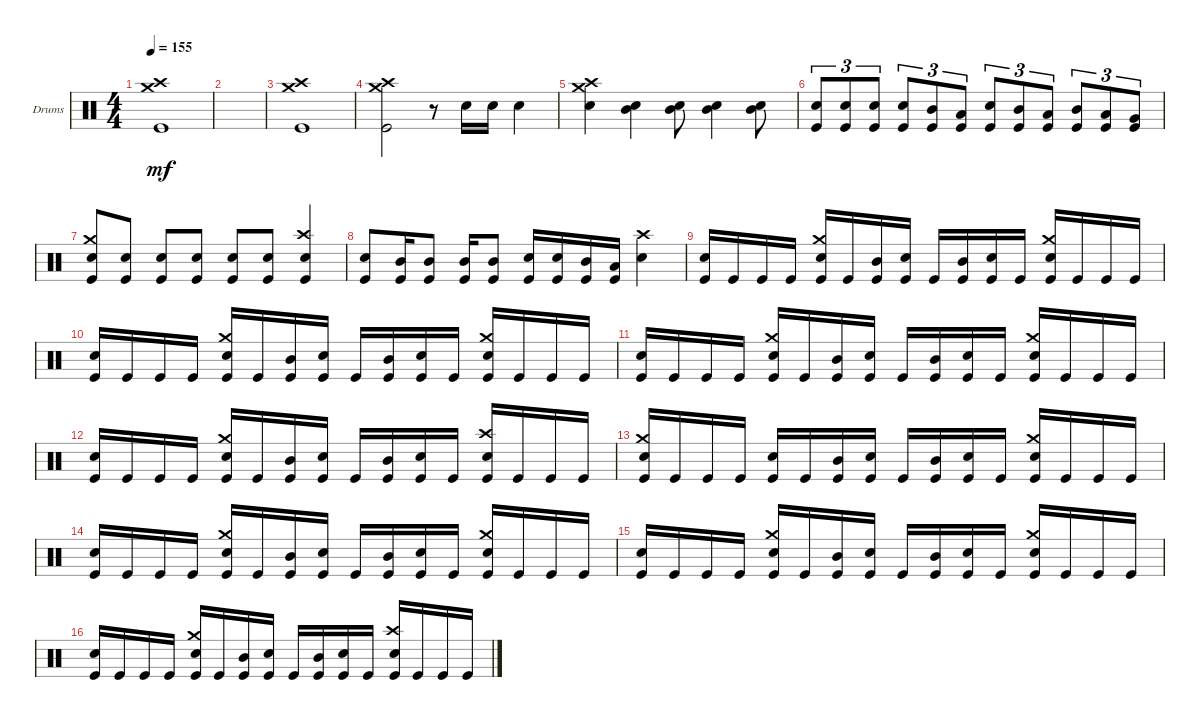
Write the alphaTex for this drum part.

\defaultSystemsLayout 4
\bracketExtendMode groupsimilarinstruments
\firstSystemTrackNameOrientation horizontal
\otherSystemsTrackNameOrientation horizontal
\track ("Drumkit" "Drums") {instrument percussion}
\staff {score}
\articulation defaults
\ts (4 4)
\tempo 155
\clef neutral
\scale
0.472222
\ks c
("Kick (hit)" "Crash medium (hit)" "Crash high (hit)").1{dy mf} |
\scale
0.263889 |
\scale
0.263889 ("Kick (hit)" "Crash medium (hit)" "Crash high (hit)").1 |
\scale
0.333333 ("Kick (hit)" "Crash medium (hit)" "Crash high (hit)").2 r.8 "Snare (hit) 2".16 "Snare (hit) 2".16 "Snare (hit) 2".4 |
\scale
0.333333 ("Crash medium (hit)" "Crash high (hit)" "Snare (hit) 2").4 ("Snare (hit) 2" "Mid Tom (hit)").4 ("Snare (hit) 2" "Mid Tom (hit)").8 ("Snare (hit) 2" "Mid Tom (hit)").4 ("Snare (hit) 2" "Mid Tom (hit)").8 |
\scale
0.333333 ("Kick (hit)" "Snare (hit) 2").8{tu (3 2)} ("Kick (hit)" "Snare (hit) 2").8{tu (3 2)} ("Kick (hit)" "Snare (hit) 2").8{tu (3 2)} ("Kick (hit)" "Snare (hit) 2").8{tu (3 2)} ("Kick (hit)" "Mid Tom (hit)").8{tu (3 2)} ("Kick (hit)" "Low Tom (hit)").8{tu (3 2)} ("Kick (hit)" "Snare (hit) 2").8{tu (3 2)} ("Kick (hit)" "Mid Tom (hit)").8{tu (3 2)} ("Kick (hit)" "Low Tom (hit)").8{tu (3 2)} ("Kick (hit)" "Mid Tom (hit)").8{tu (3 2)} ("Kick (hit)" "Low Tom (hit)").8{tu (3 2)} ("Kick (hit)" "Very Low Tom (hit)").8{tu (3 2)} |
\scale
0.333333 ("Kick (hit)" "Snare (hit) 2" "Crash medium (hit)").8 ("Kick (hit)" "Snare (hit) 2").8 ("Kick (hit)" "Snare (hit) 2").8 ("Kick (hit)" "Snare (hit) 2").8 ("Kick (hit)" "Snare (hit) 2").8 ("Kick (hit)" "Snare (hit) 2").8 ("Kick (hit)" "Snare (hit) 2" "Crash high (hit)").4 |
\scale
0.333333 ("Kick (hit)" "Snare (hit) 2").8 ("Kick (hit)" "Mid Tom (hit)").16 ("Kick (hit)" "Mid Tom (hit)").8 ("Kick (hit)" "Mid Tom (hit)").16 ("Kick (hit)" "Mid Tom (hit)").8 ("Kick (hit)" "Snare (hit) 2").16 ("Kick (hit)" "Snare (hit) 2").16 ("Kick (hit)" "Mid Tom (hit)").16 ("Kick (hit)" "Low Tom (hit)").16 ("Snare (hit) 2" "Crash high (hit)").4 |
\scale
0.333333 ("Kick (hit)" "Snare (hit) 2").16 "Kick (hit)".16 "Kick (hit)".16 "Kick (hit)".16 ("Kick (hit)" "Snare (hit) 2" "Crash medium (hit)").16 "Kick (hit)".16 ("Kick (hit)" "Mid Tom (hit)").16 ("Kick (hit)" "Snare (hit) 2").16 "Kick (hit)".16 ("Kick (hit)" "Mid Tom (hit)").16 ("Kick (hit)" "Snare (hit) 2").16 "Kick (hit)".16 ("Kick (hit)" "Snare (hit) 2" "Crash medium (hit)").16 "Kick (hit)".16 "Kick (hit)".16 "Kick (hit)".16 |
\scale
0.333333 ("Kick (hit)" "Snare (hit) 2").16 "Kick (hit)".16 "Kick (hit)".16 "Kick (hit)".16 ("Kick (hit)" "Snare (hit) 2" "Crash medium (hit)").16 "Kick (hit)".16 ("Kick (hit)" "Mid Tom (hit)").16 ("Kick (hit)" "Snare (hit) 2").16 "Kick (hit)".16 ("Kick (hit)" "Mid Tom (hit)").16 ("Kick (hit)" "Snare (hit) 2").16 "Kick (hit)".16 ("Kick (hit)" "Snare (hit) 2" "Crash medium (hit)").16 "Kick (hit)".16 "Kick (hit)".16 "Kick (hit)".16 |
\scale
0.333333 ("Kick (hit)" "Snare (hit) 2").16 "Kick (hit)".16 "Kick (hit)".16 "Kick (hit)".16 ("Kick (hit)" "Snare (hit) 2" "Crash medium (hit)").16 "Kick (hit)".16 ("Kick (hit)" "Mid Tom (hit)").16 ("Kick (hit)" "Snare (hit) 2").16 "Kick (hit)".16 ("Kick (hit)" "Mid Tom (hit)").16 ("Kick (hit)" "Snare (hit) 2").16 "Kick (hit)".16 ("Kick (hit)" "Snare (hit) 2" "Crash medium (hit)").16 "Kick (hit)".16 "Kick (hit)".16 "Kick (hit)".16 |
\scale
0.333333 ("Kick (hit)" "Snare (hit) 2").16 "Kick (hit)".16 "Kick (hit)".16 "Kick (hit)".16 ("Kick (hit)" "Snare (hit) 2" "Crash medium (hit)").16 "Kick (hit)".16 ("Kick (hit)" "Mid Tom (hit)").16 ("Kick (hit)" "Snare (hit) 2").16 "Kick (hit)".16 ("Kick (hit)" "Mid Tom (hit)").16 ("Kick (hit)" "Snare (hit) 2").16 "Kick (hit)".16 ("Kick (hit)" "Snare (hit) 2" "Crash high (hit)").16 "Kick (hit)".16 "Kick (hit)".16 "Kick (hit)".16 |
\scale
0.333333 ("Kick (hit)" "Snare (hit) 2" "Crash medium (hit)").16 "Kick (hit)".16 "Kick (hit)".16 "Kick (hit)".16 ("Kick (hit)" "Snare (hit) 2").16 "Kick (hit)".16 ("Kick (hit)" "Mid Tom (hit)").16 ("Kick (hit)" "Snare (hit) 2").16 "Kick (hit)".16 ("Kick (hit)" "Mid Tom (hit)").16 ("Kick (hit)" "Snare (hit) 2").16 "Kick (hit)".16 ("Kick (hit)" "Snare (hit) 2" "Crash medium (hit)").16 "Kick (hit)".16 "Kick (hit)".16 "Kick (hit)".16 |
\scale
0.333333 ("Kick (hit)" "Snare (hit) 2").16 "Kick (hit)".16 "Kick (hit)".16 "Kick (hit)".16 ("Kick (hit)" "Snare (hit) 2" "Crash medium (hit)").16 "Kick (hit)".16 ("Kick (hit)" "Mid Tom (hit)").16 ("Kick (hit)" "Snare (hit) 2").16 "Kick (hit)".16 ("Kick (hit)" "Mid Tom (hit)").16 ("Kick (hit)" "Snare (hit) 2").16 "Kick (hit)".16 ("Kick (hit)" "Snare (hit) 2" "Crash medium (hit)").16 "Kick (hit)".16 "Kick (hit)".16 "Kick (hit)".16 |
\scale
0.333333 ("Kick (hit)" "Snare (hit) 2").16 "Kick (hit)".16 "Kick (hit)".16 "Kick (hit)".16 ("Kick (hit)" "Snare (hit) 2" "Crash medium (hit)").16 "Kick (hit)".16 ("Kick (hit)" "Mid Tom (hit)").16 ("Kick (hit)" "Snare (hit) 2").16 "Kick (hit)".16 ("Kick (hit)" "Mid Tom (hit)").16 ("Kick (hit)" "Snare (hit) 2").16 "Kick (hit)".16 ("Kick (hit)" "Snare (hit) 2" "Crash medium (hit)").16 "Kick (hit)".16 "Kick (hit)".16 "Kick (hit)".16 |
\scale
0.333333 ("Kick (hit)" "Snare (hit) 2").16 "Kick (hit)".16 "Kick (hit)".16 "Kick (hit)".16 ("Kick (hit)" "Snare (hit) 2" "Crash medium (hit)").16 "Kick (hit)".16 ("Kick (hit)" "Mid Tom (hit)").16 ("Kick (hit)" "Snare (hit) 2").16 "Kick (hit)".16 ("Kick (hit)" "Mid Tom (hit)").16 ("Kick (hit)" "Snare (hit) 2").16 "Kick (hit)".16 ("Kick (hit)" "Snare (hit) 2" "Crash high (hit)").16 "Kick (hit)".16 "Kick (hit)".16 "Kick (hit)".16
